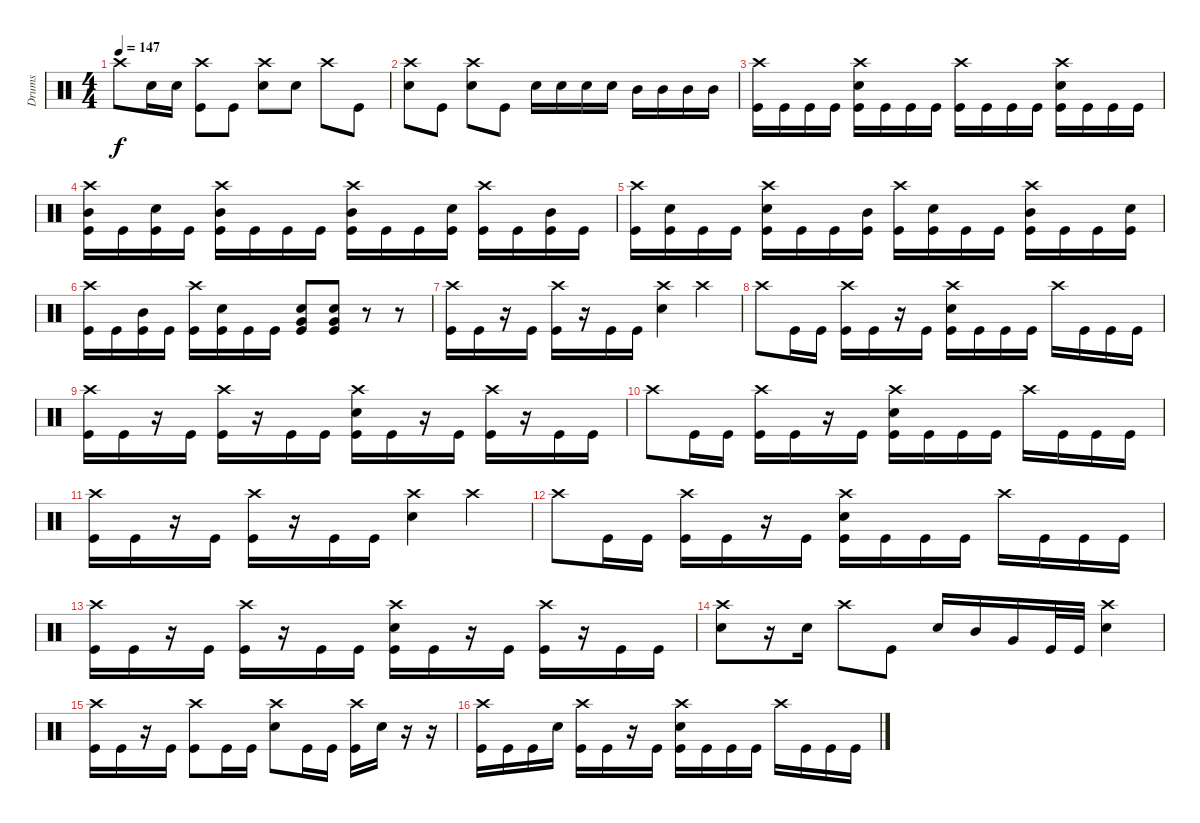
\track ("Drums" "Drums") {instrument percussion}
\staff {score}
\articulation defaults
\ts (4 4)
\tempo 147
\clef neutral
\ks c "Crash high (hit)".8{dy f} "Electric Snare (hit)".16 "Electric Snare (hit)".16
("Crash high (hit)" "Kick (hit)").8 "Kick (hit)".8 ("Crash high (hit)" "Electric Snare (hit)").8 "Electric Snare (hit)".8 "Crash high (hit)".8 "Kick (hit)".8 |
("Crash high (hit)" "Electric Snare (hit)").8 "Kick (hit)".8 ("Crash high (hit)" "Electric Snare (hit)").8 "Kick (hit)".8 "Electric Snare (hit)".16 "Electric Snare (hit)".16 "Electric Snare (hit)".16 "Electric Snare (hit)".16 "Mid Tom (hit)".16 "Mid Tom (hit)".16 "Mid Tom (hit)".16 "Mid Tom (hit)".16 |
("Crash high (hit)" "Kick (hit)").16 "Kick (hit)".16 "Kick (hit)".16 "Kick (hit)".16 ("Crash high (hit)" "Electric Snare (hit)" "Kick (hit)").16 "Kick (hit)".16 "Kick (hit)".16 "Kick (hit)".16 ("Crash high (hit)" "Kick (hit)").16 "Kick (hit)".16 "Kick (hit)".16 "Kick (hit)".16 ("Crash high (hit)" "Electric Snare (hit)" "Kick (hit)").16 "Kick (hit)".16 "Kick (hit)".16 "Kick (hit)".16 |
("Crash high (hit)" "Mid Tom (hit)" "Kick (hit)").16 "Kick (hit)".16 ("Electric Snare (hit)" "Kick (hit)").16 "Kick (hit)".16 ("Crash high (hit)" "Mid Tom (hit)" "Kick (hit)").16 "Kick (hit)".16 "Kick (hit)".16 "Kick (hit)".16 ("Crash high (hit)" "Mid Tom (hit)" "Kick (hit)").16 "Kick (hit)".16 "Kick (hit)".16 ("Electric Snare (hit)" "Kick (hit)").16 ("Crash high (hit)" "Kick (hit)").16 "Kick (hit)".16 ("Mid Tom (hit)" "Kick (hit)").16 "Kick (hit)".16 |
("Crash high (hit)" "Kick (hit)").16 ("Electric Snare (hit)" "Kick (hit)").16 "Kick (hit)".16 "Kick (hit)".16 ("Crash high (hit)" "Electric Snare (hit)" "Kick (hit)").16 "Kick (hit)".16 "Kick (hit)".16 ("Mid Tom (hit)" "Kick (hit)").16 ("Crash high (hit)" "Kick (hit)").16 ("Electric Snare (hit)" "Kick (hit)").16 "Kick (hit)".16 "Kick (hit)".16 ("Crash high (hit)" "Mid Tom (hit)" "Kick (hit)").16 "Kick (hit)".16 "Kick (hit)".16 ("Electric Snare (hit)" "Kick (hit)").16 |
("Crash high (hit)" "Kick (hit)").16 "Kick (hit)".16 ("Mid Tom (hit)" "Kick (hit)").16 "Kick (hit)".16 ("Crash high (hit)" "Kick (hit)").16 ("Electric Snare (hit)" "Kick (hit)").16 "Kick (hit)".16 "Kick (hit)".16 ("Electric Snare (hit)" "Very Low Tom (hit)" "Kick (hit)").8 ("Electric Snare (hit)" "Very Low Tom (hit)" "Kick (hit)").8 r.8 r.8 |
("Crash high (hit)" "Kick (hit)").16 "Kick (hit)".16 r.16 "Kick (hit)".16 ("Crash high (hit)" "Kick (hit)").16 r.16 "Kick (hit)".16 "Kick (hit)".16 ("Electric Snare (hit)" "Crash high (hit)").4 "Crash high (hit)".4 |
"Crash high (hit)".8 "Kick (hit)".16 "Kick (hit)".16 ("Crash high (hit)" "Kick (hit)").16 "Kick (hit)".16 r.16 "Kick (hit)".16 ("Crash high (hit)" "Kick (hit)" "Electric Snare (hit)").16 "Kick (hit)".16 "Kick (hit)".16 "Kick (hit)".16 "Crash high (hit)".16 "Kick (hit)".16 "Kick (hit)".16 "Kick (hit)".16 |
("Crash high (hit)" "Kick (hit)").16 "Kick (hit)".16 r.16 "Kick (hit)".16 ("Crash high (hit)" "Kick (hit)").16 r.16 "Kick (hit)".16 "Kick (hit)".16 ("Electric Snare (hit)" "Crash high (hit)" "Kick (hit)").16 "Kick (hit)".16 r.16 "Kick (hit)".16 ("Crash high (hit)" "Kick (hit)").16 r.16 "Kick (hit)".16 "Kick (hit)".16 |
"Crash high (hit)".8 "Kick (hit)".16 "Kick (hit)".16 ("Crash high (hit)" "Kick (hit)").16 "Kick (hit)".16 r.16 "Kick (hit)".16 ("Crash high (hit)" "Kick (hit)" "Electric Snare (hit)").16 "Kick (hit)".16 "Kick (hit)".16 "Kick (hit)".16 "Crash high (hit)".16 "Kick (hit)".16 "Kick (hit)".16 "Kick (hit)".16 |
("Crash high (hit)" "Kick (hit)").16 "Kick (hit)".16 r.16 "Kick (hit)".16 ("Crash high (hit)" "Kick (hit)").16 r.16 "Kick (hit)".16 "Kick (hit)".16 ("Electric Snare (hit)" "Crash high (hit)").4 "Crash high (hit)".4 |
"Crash high (hit)".8 "Kick (hit)".16 "Kick (hit)".16 ("Crash high (hit)" "Kick (hit)").16 "Kick (hit)".16 r.16 "Kick (hit)".16 ("Crash high (hit)" "Kick (hit)" "Electric Snare (hit)").16 "Kick (hit)".16 "Kick (hit)".16 "Kick (hit)".16 "Crash high (hit)".16 "Kick (hit)".16 "Kick (hit)".16 "Kick (hit)".16 |
("Crash high (hit)" "Kick (hit)").16 "Kick (hit)".16 r.16 "Kick (hit)".16 ("Crash high (hit)" "Kick (hit)").16 r.16 "Kick (hit)".16 "Kick (hit)".16 ("Electric Snare (hit)" "Crash high (hit)" "Kick (hit)").16 "Kick (hit)".16 r.16 "Kick (hit)".16 ("Crash high (hit)" "Kick (hit)").16 r.16 "Kick (hit)".16 "Kick (hit)".16 |
("Crash high (hit)" "Electric Snare (hit)").8 r.16 "Electric Snare (hit)".16 "Crash high (hit)".8 "Kick (hit)".8 "Electric Snare (hit)".16 "Mid Tom (hit)".16 "Very Low Tom (hit)".16 "Kick (hit)".32 "Kick (hit)".32 ("Crash high (hit)" "Electric Snare (hit)").4 |
("Crash high (hit)" "Kick (hit)").16 "Kick (hit)".16 r.16 "Kick (hit)".16 ("Crash high (hit)" "Kick (hit)").8 "Kick (hit)".16 "Kick (hit)".16 ("Crash high (hit)" "Electric Snare (hit)").8 "Kick (hit)".16 "Kick (hit)".16 ("Crash high (hit)" "Kick (hit)").16 "Electric Snare (hit)".16 r.16 r.16 |
("Crash high (hit)" "Kick (hit)").16 "Kick (hit)".16 "Kick (hit)".16 "Electric Snare (hit)".16 ("Crash high (hit)" "Kick (hit)").16 "Kick (hit)".16 r.16 "Kick (hit)".16 ("Crash high (hit)" "Kick (hit)" "Electric Snare (hit)").16 "Kick (hit)".16 "Kick (hit)".16 "Kick (hit)".16 "Crash high (hit)".16 "Kick (hit)".16 "Kick (hit)".16 "Kick (hit)".16
